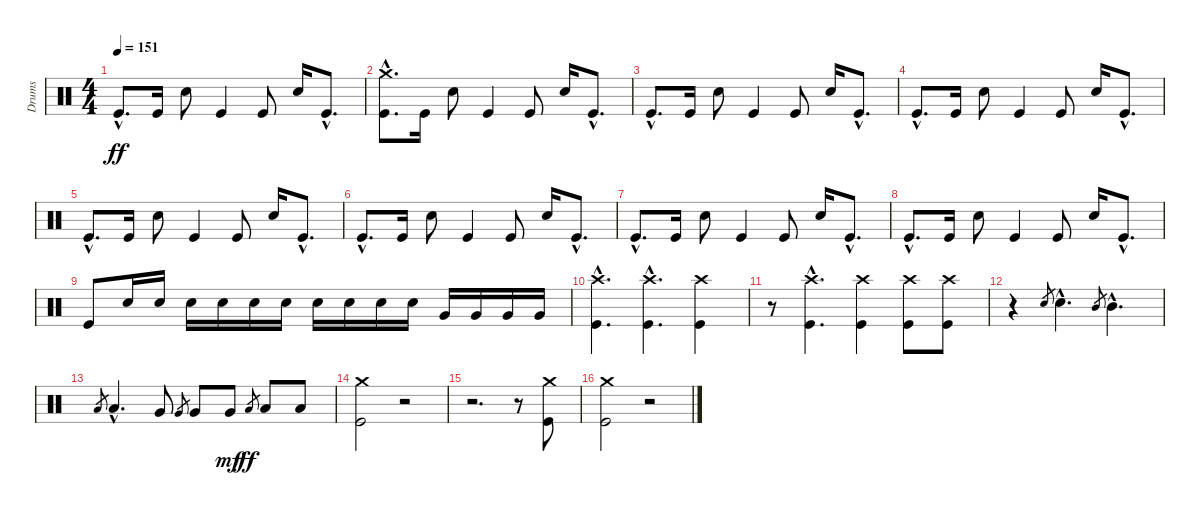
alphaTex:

\track ("Drums" "Drums") {instrument percussion}
\staff {score}
\articulation defaults
\ts (4 4)
\tempo 151
\clef neutral
\ks c "Kick (hit)"{hac}.8{d dy ff} "Kick (hit)".16 "Snare (hit) 2".8 "Kick (hit)".4 "Kick (hit)".8 "Snare (hit) 2".16 "Kick (hit)"{hac}.8{d}
|
("Crash medium (hit)"{hac} "Kick (hit)"{hac}).8{d} "Kick (hit)".16 "Snare (hit) 2".8 "Kick (hit)".4 "Kick (hit)".8 "Snare (hit) 2".16 "Kick (hit)"{hac}.8{d} |
"Kick (hit)"{hac}.8{d} "Kick (hit)".16 "Snare (hit) 2".8 "Kick (hit)".4 "Kick (hit)".8 "Snare (hit) 2".16 "Kick (hit)"{hac}.8{d} |
"Kick (hit)"{hac}.8{d} "Kick (hit)".16 "Snare (hit) 2".8 "Kick (hit)".4 "Kick (hit)".8 "Snare (hit) 2".16 "Kick (hit)"{hac}.8{d} |
"Kick (hit)"{hac}.8{d} "Kick (hit)".16 "Snare (hit) 2".8 "Kick (hit)".4 "Kick (hit)".8 "Snare (hit) 2".16 "Kick (hit)"{hac}.8{d} |
"Kick (hit)"{hac}.8{d} "Kick (hit)".16 "Snare (hit) 2".8 "Kick (hit)".4 "Kick (hit)".8 "Snare (hit) 2".16 "Kick (hit)"{hac}.8{d} |
"Kick (hit)"{hac}.8{d} "Kick (hit)".16 "Snare (hit) 2".8 "Kick (hit)".4 "Kick (hit)".8 "Snare (hit) 2".16 "Kick (hit)"{hac}.8{d} |
"Kick (hit)"{hac}.8{d} "Kick (hit)".16 "Snare (hit) 2".8 "Kick (hit)".4 "Kick (hit)".8 "Snare (hit) 2".16 "Kick (hit)"{hac}.8{d} |
"Kick (hit)".8 "Snare (hit) 2".16 "Snare (hit) 2".16 "Snare (hit) 2".16 "Snare (hit) 2".16 "Snare (hit) 2".16 "Snare (hit) 2".16 "Snare (hit) 2".16 "Snare (hit) 2".16 "Snare (hit) 2".16 "Snare (hit) 2".16 "Very Low Tom (hit)".16 "Very Low Tom (hit)".16 "Very Low Tom (hit)".16 "Very Low Tom (hit)".16 |
("Kick (hit)"{hac} "Crash high (hit)"{hac}).4{d} ("Kick (hit)"{hac} "Crash high (hit)"{hac}).4{d} ("Kick (hit)" "Crash high (hit)").4 |
r.8 ("Kick (hit)"{hac} "Crash high (hit)"{hac}).4{d} ("Kick (hit)" "Crash high (hit)").4 ("Kick (hit)" "Crash high (hit)").8 ("Kick (hit)" "Crash high (hit)").8 |
r.4 "Snare (hit) 2".8{gr} "Snare (hit) 2"{hac}.4{d} "Mid Tom (hit)".8{gr} "Mid Tom (hit)"{hac}.4{d} |
"Low Tom (hit)".8{gr} "Low Tom (hit)"{hac}.4{d} "Very Low Tom (hit)".8 "Very Low Tom (hit)".8{gr} "Very Low Tom (hit)".8 "Very Low Tom (hit)".8{dy mf} "Low Floor Tom (hit)".8{gr dy ff} "Low Floor Tom (hit)".8 "Low Floor Tom (hit)".8 |
("Crash medium (hit)" "Kick (hit)").2 r.2 |
r.2{d} r.8 ("Crash medium (hit)" "Kick (hit)").8 |
("Kick (hit)" "Crash medium (hit)").2 r.2
